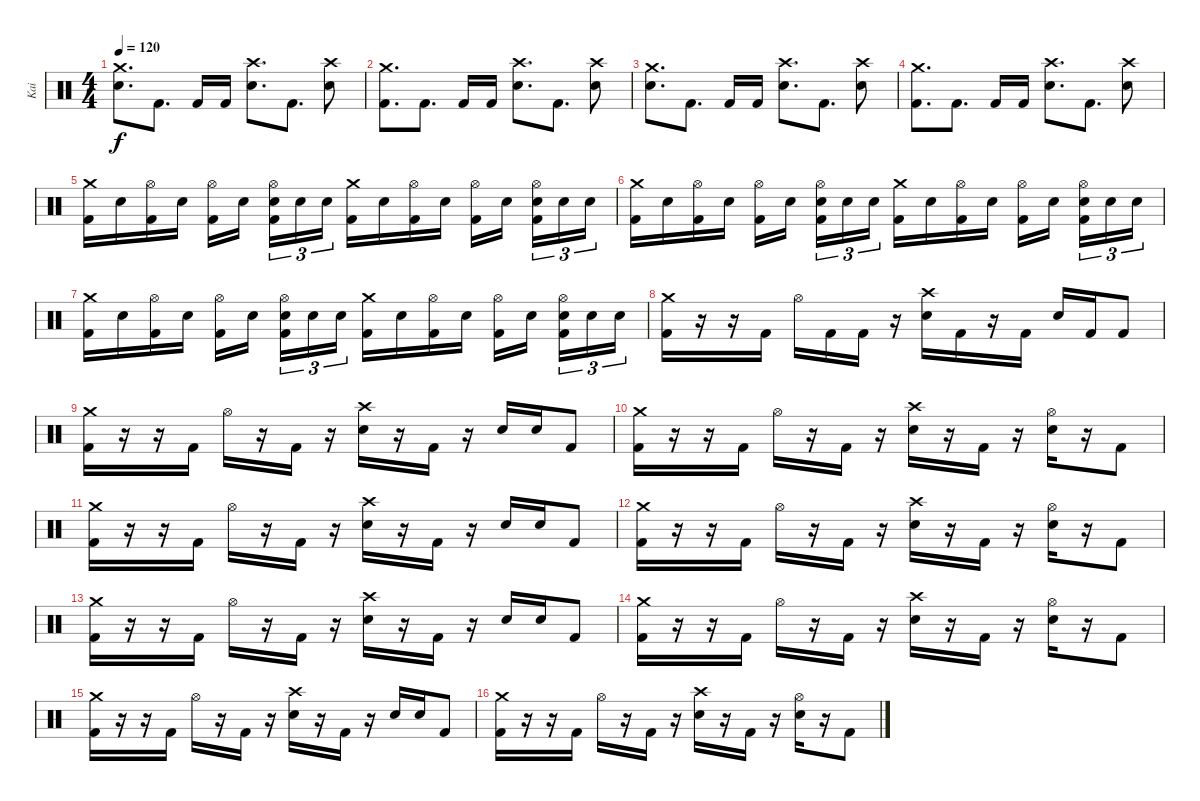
\track ("Kai" "Kai") {instrument percussion}
\staff {score}
\articulation defaults
\ts (4 4)
\tempo 120
\clef neutral
\ks c
("Crash medium (hit)" "Electric Snare (hit)").8{d dy f} "Kick (hit) 2".8{d} "Kick (hit) 2".16 "Kick (hit) 2".16 ("Crash high (hit)" "Electric Snare (hit)").8{d} "Kick (hit) 2".8{d} ("Crash high (hit)" "Electric Snare (hit)").8 |
("Crash medium (hit)" "Kick (hit) 2").8{d} "Kick (hit) 2".8{d} "Kick (hit) 2".16 "Kick (hit) 2".16 ("Crash high (hit)" "Electric Snare (hit)").8{d} "Kick (hit) 2".8{d} ("Crash high (hit)" "Electric Snare (hit)").8 |
("Crash medium (hit)" "Electric Snare (hit)").8{d} "Kick (hit) 2".8{d} "Kick (hit) 2".16 "Kick (hit) 2".16 ("Crash high (hit)" "Electric Snare (hit)").8{d} "Kick (hit) 2".8{d} ("Crash high (hit)" "Electric Snare (hit)").8 |
("Crash medium (hit)" "Kick (hit) 2").8{d} "Kick (hit) 2".8{d} "Kick (hit) 2".16 "Kick (hit) 2".16 ("Crash high (hit)" "Electric Snare (hit)").8{d} "Kick (hit) 2".8{d} ("Crash high (hit)" "Electric Snare (hit)").8 |
("Crash medium (hit)" "Kick (hit) 2").16 "Electric Snare (hit)".16 ("Hi-Hat (open)" "Kick (hit) 2").16 "Electric Snare (hit)".16 ("Hi-Hat (open)" "Kick (hit) 2").16 "Electric Snare (hit)".16{beam splitsecondary} ("Hi-Hat (open)" "Electric Snare (hit)" "Kick (hit) 2").16{tu (3 2)} "Electric Snare (hit)".16{tu (3 2)} "Electric Snare (hit)".16{tu (3 2)} ("Crash medium (hit)" "Kick (hit) 2").16 "Electric Snare (hit)".16 ("Hi-Hat (open)" "Kick (hit) 2").16 "Electric Snare (hit)".16 ("Hi-Hat (open)" "Kick (hit) 2").16 "Electric Snare (hit)".16{beam splitsecondary} ("Hi-Hat (open)" "Electric Snare (hit)" "Kick (hit) 2").16{tu (3 2)} "Electric Snare (hit)".16{tu (3 2)} "Electric Snare (hit)".16{tu (3 2)} |
("Crash medium (hit)" "Kick (hit) 2").16 "Electric Snare (hit)".16 ("Hi-Hat (open)" "Kick (hit) 2").16 "Electric Snare (hit)".16 ("Hi-Hat (open)" "Kick (hit) 2").16 "Electric Snare (hit)".16{beam splitsecondary} ("Hi-Hat (open)" "Electric Snare (hit)" "Kick (hit) 2").16{tu (3 2)} "Electric Snare (hit)".16{tu (3 2)} "Electric Snare (hit)".16{tu (3 2)} ("Crash medium (hit)" "Kick (hit) 2").16 "Electric Snare (hit)".16 ("Hi-Hat (open)" "Kick (hit) 2").16 "Electric Snare (hit)".16 ("Hi-Hat (open)" "Kick (hit) 2").16 "Electric Snare (hit)".16{beam splitsecondary} ("Hi-Hat (open)" "Electric Snare (hit)" "Kick (hit) 2").16{tu (3 2)} "Electric Snare (hit)".16{tu (3 2)} "Electric Snare (hit)".16{tu (3 2)} |
("Crash medium (hit)" "Kick (hit) 2").16 "Electric Snare (hit)".16 ("Hi-Hat (open)" "Kick (hit) 2").16 "Electric Snare (hit)".16 ("Hi-Hat (open)" "Kick (hit) 2").16 "Electric Snare (hit)".16{beam splitsecondary} ("Hi-Hat (open)" "Electric Snare (hit)" "Kick (hit) 2").16{tu (3 2)} "Electric Snare (hit)".16{tu (3 2)} "Electric Snare (hit)".16{tu (3 2)} ("Crash medium (hit)" "Kick (hit) 2").16 "Electric Snare (hit)".16 ("Hi-Hat (open)" "Kick (hit) 2").16 "Electric Snare (hit)".16 ("Hi-Hat (open)" "Kick (hit) 2").16 "Electric Snare (hit)".16{beam splitsecondary} ("Hi-Hat (open)" "Electric Snare (hit)" "Kick (hit) 2").16{tu (3 2)} "Electric Snare (hit)".16{tu (3 2)} "Electric Snare (hit)".16{tu (3 2)} |
("Crash medium (hit)" "Kick (hit) 2").16 r.16 r.16 "Kick (hit) 2".16 "Hi-Hat (open)".16 "Kick (hit) 2".16 "Kick (hit) 2".16 r.16 ("Crash high (hit)" "Electric Snare (hit)").16 "Kick (hit) 2".16 r.16 "Kick (hit) 2".16 "Electric Snare (hit)".16 "Kick (hit) 2".16 "Kick (hit) 2".8 |
("Crash medium (hit)" "Kick (hit) 2").16 r.16 r.16 "Kick (hit) 2".16 "Hi-Hat (open)".16 r.16 "Kick (hit) 2".16 r.16 ("Crash high (hit)" "Electric Snare (hit)").16 r.16 "Kick (hit) 2".16 r.16 "Electric Snare (hit)".16 "Electric Snare (hit)".16 "Kick (hit) 2".8 |
("Crash medium (hit)" "Kick (hit) 2").16 r.16 r.16 "Kick (hit) 2".16 "Hi-Hat (open)".16 r.16 "Kick (hit) 2".16 r.16 ("Crash high (hit)" "Electric Snare (hit)").16 r.16 "Kick (hit) 2".16 r.16 ("Hi-Hat (open)" "Electric Snare (hit)").16 r.16 "Kick (hit) 2".8 |
("Crash medium (hit)" "Kick (hit) 2").16 r.16 r.16 "Kick (hit) 2".16 "Hi-Hat (open)".16 r.16 "Kick (hit) 2".16 r.16 ("Crash high (hit)" "Electric Snare (hit)").16 r.16 "Kick (hit) 2".16 r.16 "Electric Snare (hit)".16 "Electric Snare (hit)".16 "Kick (hit) 2".8 |
("Crash medium (hit)" "Kick (hit) 2").16 r.16 r.16 "Kick (hit) 2".16 "Hi-Hat (open)".16 r.16 "Kick (hit) 2".16 r.16 ("Crash high (hit)" "Electric Snare (hit)").16 r.16 "Kick (hit) 2".16 r.16 ("Hi-Hat (open)" "Electric Snare (hit)").16 r.16 "Kick (hit) 2".8 |
("Crash medium (hit)" "Kick (hit) 2").16 r.16 r.16 "Kick (hit) 2".16 "Hi-Hat (open)".16 r.16 "Kick (hit) 2".16 r.16 ("Crash high (hit)" "Electric Snare (hit)").16 r.16 "Kick (hit) 2".16 r.16 "Electric Snare (hit)".16 "Electric Snare (hit)".16 "Kick (hit) 2".8 |
("Crash medium (hit)" "Kick (hit) 2").16 r.16 r.16 "Kick (hit) 2".16 "Hi-Hat (open)".16 r.16 "Kick (hit) 2".16 r.16 ("Crash high (hit)" "Electric Snare (hit)").16 r.16 "Kick (hit) 2".16 r.16 ("Hi-Hat (open)" "Electric Snare (hit)").16 r.16 "Kick (hit) 2".8 |
("Crash medium (hit)" "Kick (hit) 2").16 r.16 r.16 "Kick (hit) 2".16 "Hi-Hat (open)".16 r.16 "Kick (hit) 2".16 r.16 ("Crash high (hit)" "Electric Snare (hit)").16 r.16 "Kick (hit) 2".16 r.16 "Electric Snare (hit)".16 "Electric Snare (hit)".16 "Kick (hit) 2".8 |
("Crash medium (hit)" "Kick (hit) 2").16 r.16 r.16 "Kick (hit) 2".16 "Hi-Hat (open)".16 r.16 "Kick (hit) 2".16 r.16 ("Crash high (hit)" "Electric Snare (hit)").16 r.16 "Kick (hit) 2".16 r.16 ("Hi-Hat (open)" "Electric Snare (hit)").16 r.16 "Kick (hit) 2".8
